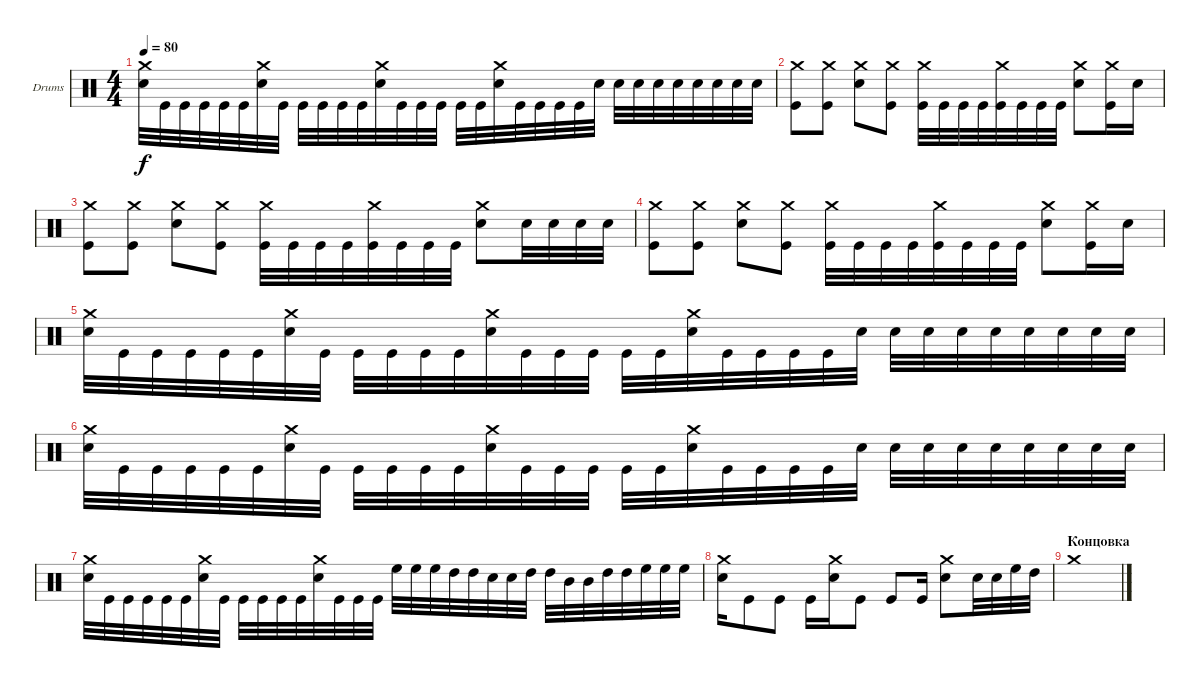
\defaultSystemsLayout 4
\bracketExtendMode groupsimilarinstruments
\firstSystemTrackNameOrientation horizontal
\otherSystemsTrackNameOrientation horizontal
\track ("Drumkit" "Drums") {instrument percussion}
\staff {score}
\articulation defaults
\ts (4 4)
\tempo 80
\clef neutral
\ks c
("Crash medium (hit)" "Snare (hit) 2").32{dy f} "Kick (hit)".32 "Kick (hit)".32 "Kick (hit)".32 "Kick (hit)".32 "Kick (hit)".32 ("Crash medium (hit)" "Snare (hit) 2").32 "Kick (hit)".32 "Kick (hit)".32 "Kick (hit)".32 "Kick (hit)".32 "Kick (hit)".32 ("Crash medium (hit)" "Snare (hit) 2").32 "Kick (hit)".32 "Kick (hit)".32 "Kick (hit)".32 "Kick (hit)".32 "Kick (hit)".32 ("Crash medium (hit)" "Snare (hit) 2").32 "Kick (hit)".32 "Kick (hit)".32 "Kick (hit)".32 "Kick (hit)".32 "Snare (hit) 2".32 "Snare (hit) 2".32 "Snare (hit) 2".32 "Snare (hit) 2".32 "Snare (hit) 2".32 "Snare (hit) 2".32 "Snare (hit) 2".32 "Snare (hit) 2".32 "Snare (hit) 2".32 |
("Kick (hit)" "Crash medium (hit)").8 ("Kick (hit)" "Crash medium (hit)").8 ("Snare (hit) 2" "Crash medium (hit)").8 ("Kick (hit)" "Crash medium (hit)").8 ("Kick (hit)" "Crash medium (hit)").32 "Kick (hit)".32 "Kick (hit)".32 "Kick (hit)".32 ("Kick (hit)" "Crash medium (hit)").32 "Kick (hit)".32 "Kick (hit)".32 "Kick (hit)".32 ("Snare (hit) 2" "Crash medium (hit)").8 ("Kick (hit)" "Crash medium (hit)").16 "Snare (hit) 2".16 |
("Kick (hit)" "Crash medium (hit)").8 ("Kick (hit)" "Crash medium (hit)").8 ("Snare (hit) 2" "Crash medium (hit)").8 ("Kick (hit)" "Crash medium (hit)").8 ("Kick (hit)" "Crash medium (hit)").32 "Kick (hit)".32 "Kick (hit)".32 "Kick (hit)".32 ("Kick (hit)" "Crash medium (hit)").32 "Kick (hit)".32 "Kick (hit)".32 "Kick (hit)".32 ("Snare (hit) 2" "Crash medium (hit)").8 "Snare (hit) 2".32 "Snare (hit) 2".32 "Snare (hit) 2".32 "Snare (hit) 2".32 |
("Kick (hit)" "Crash medium (hit)").8 ("Kick (hit)" "Crash medium (hit)").8 ("Snare (hit) 2" "Crash medium (hit)").8 ("Kick (hit)" "Crash medium (hit)").8 ("Kick (hit)" "Crash medium (hit)").32 "Kick (hit)".32 "Kick (hit)".32 "Kick (hit)".32 ("Kick (hit)" "Crash medium (hit)").32 "Kick (hit)".32 "Kick (hit)".32 "Kick (hit)".32 ("Snare (hit) 2" "Crash medium (hit)").8 ("Kick (hit)" "Crash medium (hit)").16 "Snare (hit) 2".16 |
("Crash medium (hit)" "Snare (hit) 2").32 "Kick (hit)".32 "Kick (hit)".32 "Kick (hit)".32 "Kick (hit)".32 "Kick (hit)".32 ("Crash medium (hit)" "Snare (hit) 2").32 "Kick (hit)".32 "Kick (hit)".32 "Kick (hit)".32 "Kick (hit)".32 "Kick (hit)".32 ("Crash medium (hit)" "Snare (hit) 2").32 "Kick (hit)".32 "Kick (hit)".32 "Kick (hit)".32 "Kick (hit)".32 "Kick (hit)".32 ("Crash medium (hit)" "Snare (hit) 2").32 "Kick (hit)".32 "Kick (hit)".32 "Kick (hit)".32 "Kick (hit)".32 "Snare (hit) 2".32 "Snare (hit) 2".32 "Snare (hit) 2".32 "Snare (hit) 2".32 "Snare (hit) 2".32 "Snare (hit) 2".32 "Snare (hit) 2".32 "Snare (hit) 2".32 "Snare (hit) 2".32 |
("Crash medium (hit)" "Snare (hit) 2").32 "Kick (hit)".32 "Kick (hit)".32 "Kick (hit)".32 "Kick (hit)".32 "Kick (hit)".32 ("Crash medium (hit)" "Snare (hit) 2").32 "Kick (hit)".32 "Kick (hit)".32 "Kick (hit)".32 "Kick (hit)".32 "Kick (hit)".32 ("Crash medium (hit)" "Snare (hit) 2").32 "Kick (hit)".32 "Kick (hit)".32 "Kick (hit)".32 "Kick (hit)".32 "Kick (hit)".32 ("Crash medium (hit)" "Snare (hit) 2").32 "Kick (hit)".32 "Kick (hit)".32 "Kick (hit)".32 "Kick (hit)".32 "Snare (hit) 2".32 "Snare (hit) 2".32 "Snare (hit) 2".32 "Snare (hit) 2".32 "Snare (hit) 2".32 "Snare (hit) 2".32 "Snare (hit) 2".32 "Snare (hit) 2".32 "Snare (hit) 2".32 |
("Crash medium (hit)" "Snare (hit) 2").32 "Kick (hit)".32 "Kick (hit)".32 "Kick (hit)".32 "Kick (hit)".32 "Kick (hit)".32 ("Crash medium (hit)" "Snare (hit) 2").32 "Kick (hit)".32 "Kick (hit)".32 "Kick (hit)".32 "Kick (hit)".32 "Kick (hit)".32 ("Crash medium (hit)" "Snare (hit) 2").32 "Kick (hit)".32 "Kick (hit)".32 "Kick (hit)".32 "High Floor Tom (hit)".32 "High Floor Tom (hit)".32 "High Floor Tom (hit)".32 "High Tom (hit)".32 "High Tom (hit)".32 "Snare (hit) 2".32 "Snare (hit) 2".32 "High Tom (hit)".32 "High Tom (hit)".32 "Mid Tom (hit)".32 "Mid Tom (hit)".32 "High Tom (hit)".32 "High Tom (hit)".32 "High Floor Tom (hit)".32 "High Floor Tom (hit)".32 "High Floor Tom (hit)".32 |
("Crash medium (hit)" "Snare (hit) 2").16 "Kick (hit)".8 "Kick (hit)".8 "Kick (hit)".16 ("Snare (hit) 2" "Crash medium (hit)").16 "Kick (hit)".8 "Kick (hit)".8 "Kick (hit)".16 ("Snare (hit) 2" "Crash medium (hit)").8 "Snare (hit) 2".32 "Snare (hit) 2".32 "High Floor Tom (hit)".32 "High Tom (hit)".32 |
\section ("" "Концовка")
"Crash medium (hit)".1
